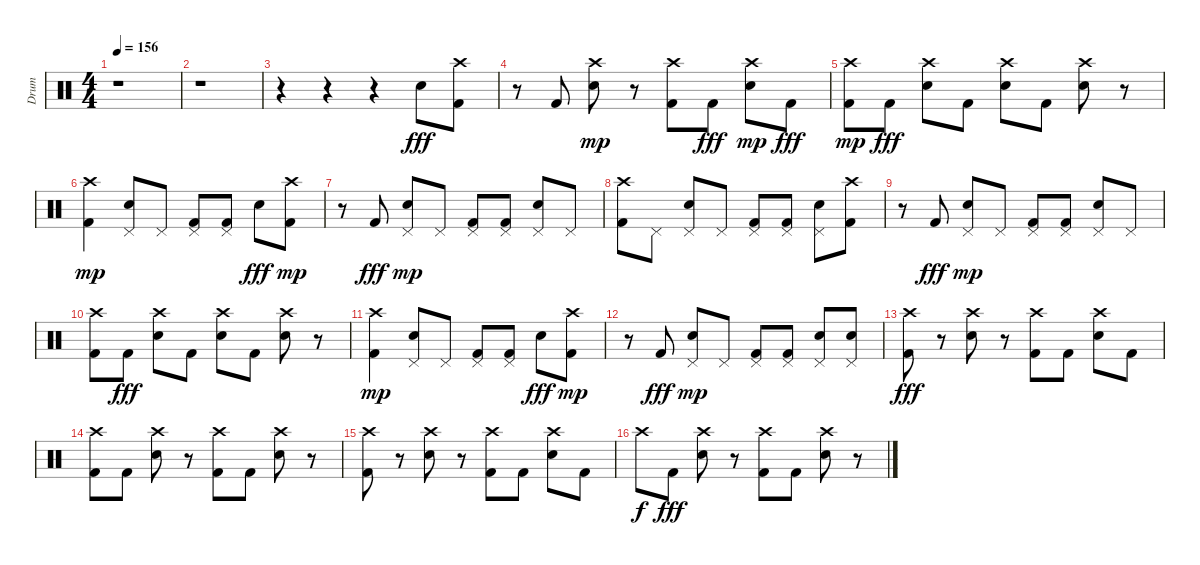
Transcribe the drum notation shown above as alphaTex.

\track ("Drum" "Drum") {instrument percussion}
\staff {score}
\articulation defaults
\ts (4 4)
\tempo 156
\clef neutral
\ks c
r.1{dy mp} |
r.1 |
r.4 r.4 r.4 "Electric Snare (hit)".8{dy fff} ("Kick (hit) 2" "Crash high (hit)").8 |
r.8 "Kick (hit) 2".8 ("Electric Snare (hit)" "Crash high (hit)").8{dy mp} r.8 ("Kick (hit) 2" "Crash high (hit)").8 "Kick (hit) 2".8{dy fff} ("Electric Snare (hit)" "Crash high (hit)").8{dy mp} "Kick (hit) 2".8{dy fff} |
("Kick (hit) 2" "Crash high (hit)").8{dy mp} "Kick (hit) 2".8{dy fff} ("Electric Snare (hit)" "Crash high (hit)").8 "Kick (hit) 2".8 ("Electric Snare (hit)" "Crash high (hit)").8 "Kick (hit) 2".8 ("Electric Snare (hit)" "Crash high (hit)").8 r.8 |
("Kick (hit) 2" "Crash high (hit)").4{dy mp} ("Electric Snare (hit)" "Pedal Hi-Hat (hit)").8 "Pedal Hi-Hat (hit)".8 ("Kick (hit) 2" "Pedal Hi-Hat (hit)").8 ("Kick (hit) 2" "Pedal Hi-Hat (hit)").8 "Electric Snare (hit)".8{dy fff} ("Kick (hit) 2" "Crash high (hit)").8{dy mp} |
r.8 "Kick (hit) 2".8{dy fff} ("Electric Snare (hit)" "Pedal Hi-Hat (hit)").8{dy mp} "Pedal Hi-Hat (hit)".8 ("Kick (hit) 2" "Pedal Hi-Hat (hit)").8 ("Kick (hit) 2" "Pedal Hi-Hat (hit)").8 ("Electric Snare (hit)" "Pedal Hi-Hat (hit)").8 "Pedal Hi-Hat (hit)".8 |
("Kick (hit) 2" "Crash high (hit)").8 "Pedal Hi-Hat (hit)".8 ("Electric Snare (hit)" "Pedal Hi-Hat (hit)").8 "Pedal Hi-Hat (hit)".8 ("Kick (hit) 2" "Pedal Hi-Hat (hit)").8 ("Kick (hit) 2" "Pedal Hi-Hat (hit)").8 ("Electric Snare (hit)" "Pedal Hi-Hat (hit)").8 ("Kick (hit) 2" "Crash high (hit)").8 |
r.8 "Kick (hit) 2".8{dy fff} ("Electric Snare (hit)" "Pedal Hi-Hat (hit)").8{dy mp} "Pedal Hi-Hat (hit)".8 ("Kick (hit) 2" "Pedal Hi-Hat (hit)").8 ("Kick (hit) 2" "Pedal Hi-Hat (hit)").8 ("Electric Snare (hit)" "Pedal Hi-Hat (hit)").8 "Pedal Hi-Hat (hit)".8 |
("Kick (hit) 2" "Crash high (hit)").8 "Kick (hit) 2".8{dy fff} ("Electric Snare (hit)" "Crash high (hit)").8 "Kick (hit) 2".8 ("Electric Snare (hit)" "Crash high (hit)").8 "Kick (hit) 2".8 ("Electric Snare (hit)" "Crash high (hit)").8 r.8 |
("Kick (hit) 2" "Crash high (hit)").4{dy mp} ("Electric Snare (hit)" "Pedal Hi-Hat (hit)").8 "Pedal Hi-Hat (hit)".8 ("Kick (hit) 2" "Pedal Hi-Hat (hit)").8 ("Kick (hit) 2" "Pedal Hi-Hat (hit)").8 "Electric Snare (hit)".8{dy fff} ("Kick (hit) 2" "Crash high (hit)").8{dy mp} |
r.8 "Kick (hit) 2".8{dy fff} ("Electric Snare (hit)" "Pedal Hi-Hat (hit)").8{dy mp} "Pedal Hi-Hat (hit)".8 ("Kick (hit) 2" "Pedal Hi-Hat (hit)").8 ("Kick (hit) 2" "Pedal Hi-Hat (hit)").8 ("Electric Snare (hit)" "Pedal Hi-Hat (hit)").8 ("Electric Snare (hit)"{tr (40 32)} "Pedal Hi-Hat (hit)").8 |
("Kick (hit) 2" "Crash high (hit)").8{dy fff} r.8 ("Electric Snare (hit)" "Crash high (hit)").8 r.8 ("Kick (hit) 2" "Crash high (hit)").8 "Kick (hit) 2".8 ("Electric Snare (hit)" "Crash high (hit)").8 "Kick (hit) 2".8 |
("Kick (hit) 2" "Crash high (hit)").8 "Kick (hit) 2".8 ("Electric Snare (hit)" "Crash high (hit)").8 r.8 ("Kick (hit) 2" "Crash high (hit)").8 "Kick (hit) 2".8 ("Electric Snare (hit)" "Crash high (hit)").8 r.8 |
("Kick (hit) 2" "Crash high (hit)").8 r.8 ("Electric Snare (hit)" "Crash high (hit)").8 r.8 ("Kick (hit) 2" "Crash high (hit)").8 "Kick (hit) 2".8 ("Electric Snare (hit)" "Crash high (hit)").8 "Kick (hit) 2".8 |
"Crash high (hit)".8{dy f} "Kick (hit) 2".8{dy fff} ("Electric Snare (hit)" "Crash high (hit)").8 r.8 ("Kick (hit) 2" "Crash high (hit)").8 "Kick (hit) 2".8 ("Electric Snare (hit)" "Crash high (hit)").8 r.8
